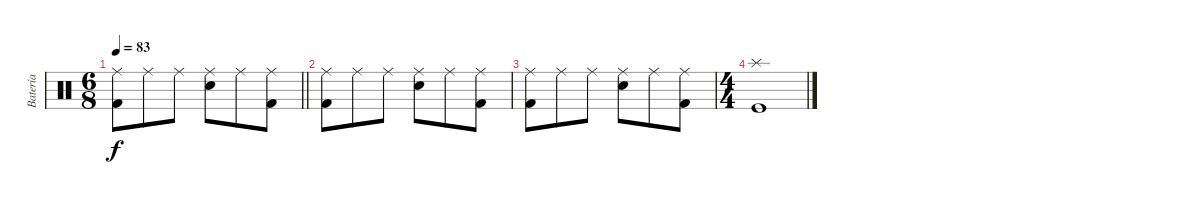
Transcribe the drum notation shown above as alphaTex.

\track ("Batería" "Batería") {instrument percussion}
\staff {score}
\articulation defaults
\ts (6 8)
\tempo 83
\clef neutral
\barLineRight lightlight
\ks c
("Ride (middle)" "Kick (hit) 2").8{dy f} "Ride (middle)".8 "Ride (middle)".8 ("Ride (middle)" "Electric Snare (hit)").8 "Ride (middle)".8 ("Ride (middle)" "Kick (hit) 2").8 |
("Ride (middle)" "Kick (hit) 2").8 "Ride (middle)".8 "Ride (middle)".8 ("Ride (middle)" "Electric Snare (hit)").8 "Ride (middle)".8 ("Ride (middle)" "Kick (hit) 2").8 |
("Ride (middle)" "Kick (hit) 2").8 "Ride (middle)".8 "Ride (middle)".8 ("Ride (middle)" "Electric Snare (hit)").8 "Ride (middle)".8 ("Ride (middle)" "Kick (hit) 2").8 |
\ts (4 4)
("Kick (hit)" "Splash (hit)").1
